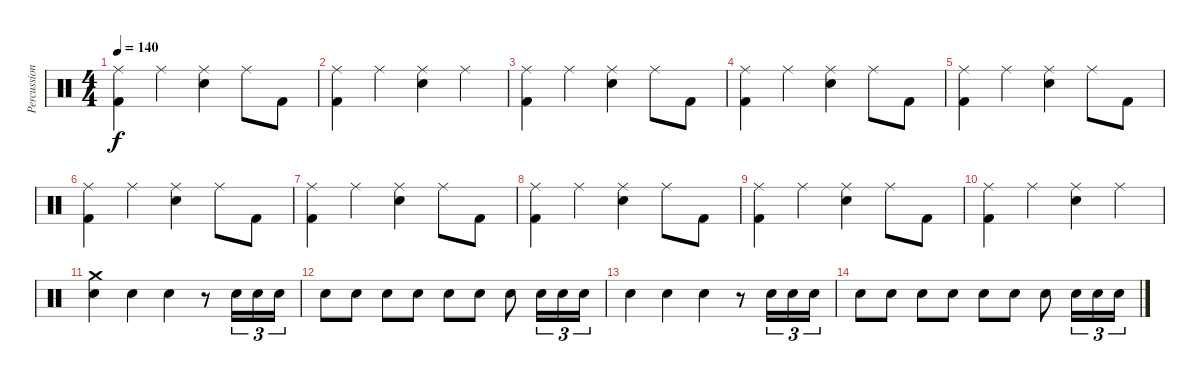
\track ("Percussion" "Percussion") {instrument percussion}
\staff {score}
\articulation defaults
\ts (4 4)
\tempo 140
\clef neutral
\ks c
("Ride (middle)" "Kick (hit) 2").4{dy f} "Ride (middle)".4 ("Ride (middle)" "Snare (hit) 2").4 "Ride (middle)".8 "Kick (hit) 2".8 |
("Ride (middle)" "Kick (hit) 2").4 "Ride (middle)".4 ("Ride (middle)" "Snare (hit) 2").4 "Ride (middle)".4 |
("Ride (middle)" "Kick (hit) 2").4 "Ride (middle)".4 ("Ride (middle)" "Snare (hit) 2").4 "Ride (middle)".8 "Kick (hit) 2".8 |
("Ride (middle)" "Kick (hit) 2").4 "Ride (middle)".4 ("Ride (middle)" "Snare (hit) 2").4 "Ride (middle)".8 "Kick (hit) 2".8 |
("Ride (middle)" "Kick (hit) 2").4 "Ride (middle)".4 ("Ride (middle)" "Snare (hit) 2").4 "Ride (middle)".8 "Kick (hit) 2".8 |
("Ride (middle)" "Kick (hit) 2").4 "Ride (middle)".4 ("Ride (middle)" "Snare (hit) 2").4 "Ride (middle)".8 "Kick (hit) 2".8 |
("Ride (middle)" "Kick (hit) 2").4 "Ride (middle)".4 ("Ride (middle)" "Snare (hit) 2").4 "Ride (middle)".8 "Kick (hit) 2".8 |
("Ride (middle)" "Kick (hit) 2").4 "Ride (middle)".4 ("Ride (middle)" "Snare (hit) 2").4 "Ride (middle)".8 "Kick (hit) 2".8 |
("Ride (middle)" "Kick (hit) 2").4 "Ride (middle)".4 ("Ride (middle)" "Snare (hit) 2").4 "Ride (middle)".8 "Kick (hit) 2".8 |
("Ride (middle)" "Kick (hit) 2").4 "Ride (middle)".4 ("Ride (middle)" "Snare (hit) 2").4 "Ride (middle)".4 |
("Crash medium (hit)" "Snare (hit) 2").4 "Snare (hit) 2".4 "Snare (hit) 2".4 r.8 "Snare (hit) 2".16{tu (3 2)} "Snare (hit) 2".16{tu (3 2)} "Snare (hit) 2".16{tu (3 2)} |
"Snare (hit) 2".8 "Snare (hit) 2".8 "Snare (hit) 2".8 "Snare (hit) 2".8 "Snare (hit) 2".8 "Snare (hit) 2".8 "Snare (hit) 2".8 "Snare (hit) 2".16{tu (3 2)} "Snare (hit) 2".16{tu (3 2)} "Snare (hit) 2".16{tu (3 2)} |
"Snare (hit) 2".4 "Snare (hit) 2".4 "Snare (hit) 2".4 r.8 "Snare (hit) 2".16{tu (3 2)} "Snare (hit) 2".16{tu (3 2)} "Snare (hit) 2".16{tu (3 2)} |
"Snare (hit) 2".8 "Snare (hit) 2".8 "Snare (hit) 2".8 "Snare (hit) 2".8 "Snare (hit) 2".8 "Snare (hit) 2".8 "Snare (hit) 2".8 "Snare (hit) 2".16{tu (3 2)} "Snare (hit) 2".16{tu (3 2)} "Snare (hit) 2".16{tu (3 2)}
